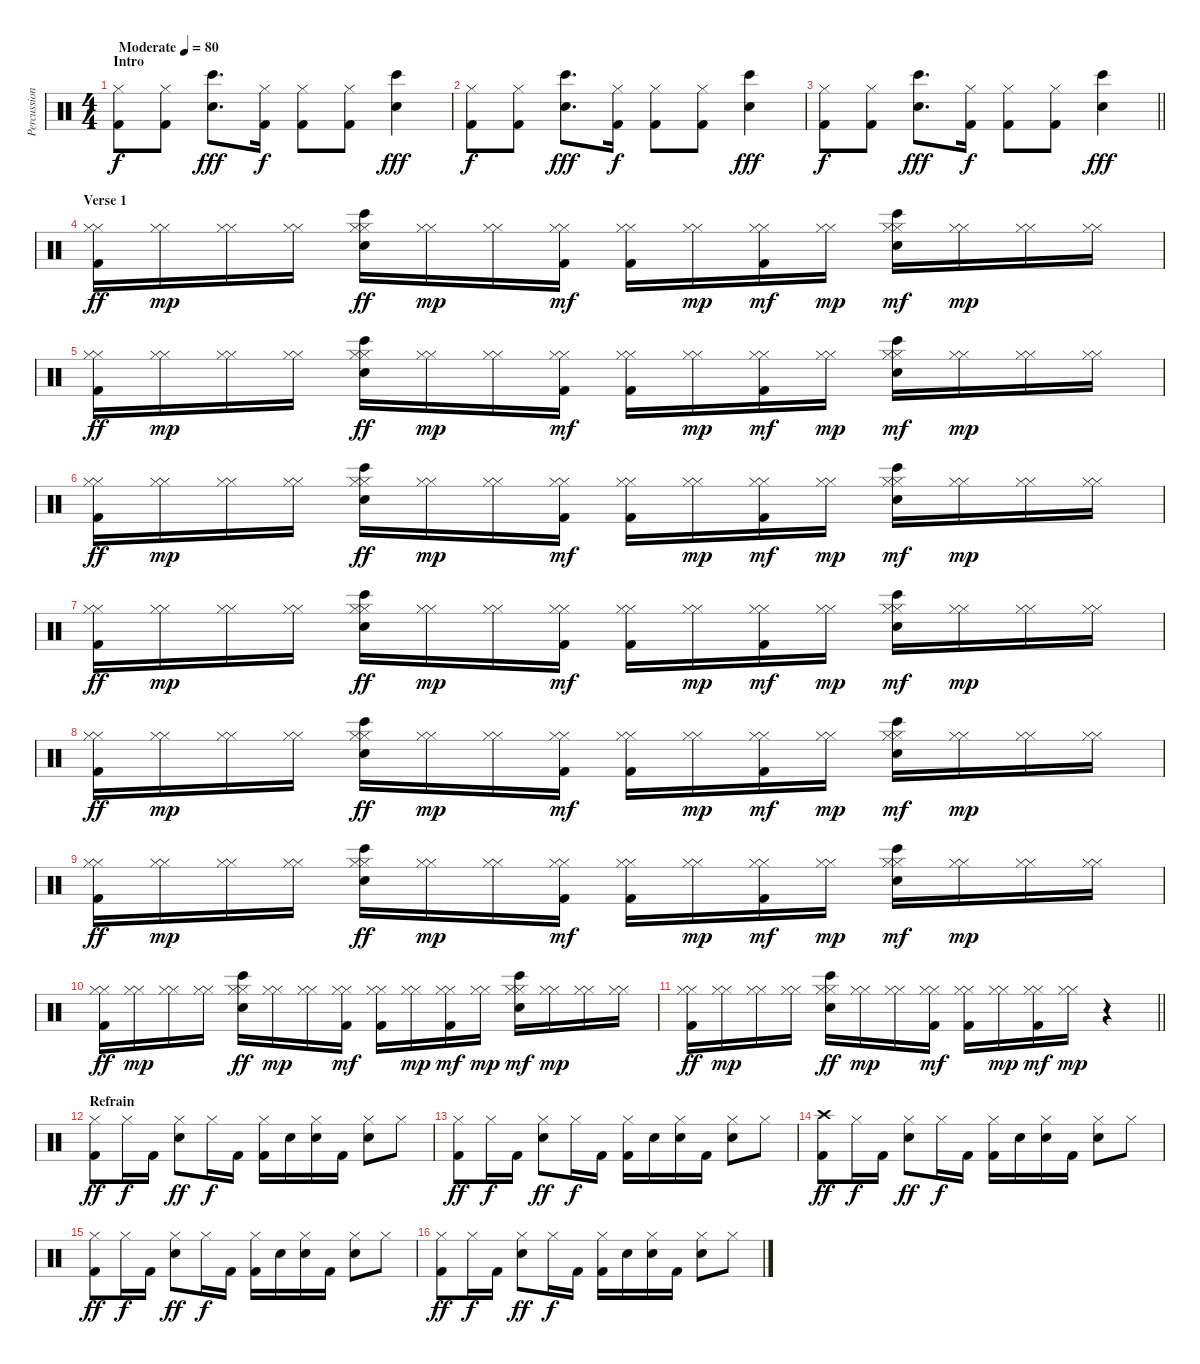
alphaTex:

\track ("Percussion (Stieven)" "Percussion") {instrument percussion}
\staff {score}
\articulation defaults
\ts (4 4)
\section ("" "Intro")
\tempo (80 "Moderate")
\clef neutral
\ks c
("Hi-Hat (closed)" "Kick (hit) 2").8{dy f} ("Hi-Hat (closed)" "Kick (hit) 2").8 ("Bongo High (hit)" "Snare (hit) 2").8{d dy fff} ("Hi-Hat (closed)" "Kick (hit) 2").16{dy f} ("Hi-Hat (closed)" "Kick (hit) 2").8 ("Hi-Hat (closed)" "Kick (hit) 2").8 ("Bongo High (hit)" "Snare (hit) 2").4{dy fff} |
("Hi-Hat (closed)" "Kick (hit) 2").8{dy f} ("Hi-Hat (closed)" "Kick (hit) 2").8 ("Bongo High (hit)" "Snare (hit) 2").8{d dy fff} ("Hi-Hat (closed)" "Kick (hit) 2").16{dy f} ("Hi-Hat (closed)" "Kick (hit) 2").8 ("Hi-Hat (closed)" "Kick (hit) 2").8 ("Bongo High (hit)" "Snare (hit) 2").4{dy fff} |
\barLineRight lightlight
("Hi-Hat (closed)" "Kick (hit) 2").8{dy f} ("Hi-Hat (closed)" "Kick (hit) 2").8 ("Bongo High (hit)" "Snare (hit) 2").8{d dy fff} ("Hi-Hat (closed)" "Kick (hit) 2").16{dy f} ("Hi-Hat (closed)" "Kick (hit) 2").8 ("Hi-Hat (closed)" "Kick (hit) 2").8 ("Bongo High (hit)" "Snare (hit) 2").4{dy fff} |
\section ("" "Verse 1")
("Hi-Hat (closed)" "Hi-Hat (closed)" "Kick (hit) 2").16{dy ff} ("Hi-Hat (closed)" "Hi-Hat (closed)").16{dy mp} ("Hi-Hat (closed)" "Hi-Hat (closed)").16 ("Hi-Hat (closed)" "Hi-Hat (closed)").16 ("Hi-Hat (closed)" "Hi-Hat (closed)" "Bongo High (hit)" "Snare (hit) 2").16{dy ff} ("Hi-Hat (closed)" "Hi-Hat (closed)").16{dy mp} ("Hi-Hat (closed)" "Hi-Hat (closed)").16 ("Hi-Hat (closed)" "Hi-Hat (closed)" "Kick (hit) 2").16{dy mf} ("Hi-Hat (closed)" "Hi-Hat (closed)" "Kick (hit) 2").16 ("Hi-Hat (closed)" "Hi-Hat (closed)").16{dy mp} ("Hi-Hat (closed)" "Hi-Hat (closed)" "Kick (hit) 2").16{dy mf} ("Hi-Hat (closed)" "Hi-Hat (closed)").16{dy mp} ("Hi-Hat (closed)" "Hi-Hat (closed)" "Bongo High (hit)" "Snare (hit) 2").16{dy mf} ("Hi-Hat (closed)" "Hi-Hat (closed)").16{dy mp} ("Hi-Hat (closed)" "Hi-Hat (closed)").16 ("Hi-Hat (closed)" "Hi-Hat (closed)").16 |
("Hi-Hat (closed)" "Hi-Hat (closed)" "Kick (hit) 2").16{dy ff} ("Hi-Hat (closed)" "Hi-Hat (closed)").16{dy mp} ("Hi-Hat (closed)" "Hi-Hat (closed)").16 ("Hi-Hat (closed)" "Hi-Hat (closed)").16 ("Hi-Hat (closed)" "Hi-Hat (closed)" "Bongo High (hit)" "Snare (hit) 2").16{dy ff} ("Hi-Hat (closed)" "Hi-Hat (closed)").16{dy mp} ("Hi-Hat (closed)" "Hi-Hat (closed)").16 ("Hi-Hat (closed)" "Hi-Hat (closed)" "Kick (hit) 2").16{dy mf} ("Hi-Hat (closed)" "Hi-Hat (closed)" "Kick (hit) 2").16 ("Hi-Hat (closed)" "Hi-Hat (closed)").16{dy mp} ("Hi-Hat (closed)" "Hi-Hat (closed)" "Kick (hit) 2").16{dy mf} ("Hi-Hat (closed)" "Hi-Hat (closed)").16{dy mp} ("Hi-Hat (closed)" "Hi-Hat (closed)" "Bongo High (hit)" "Snare (hit) 2").16{dy mf} ("Hi-Hat (closed)" "Hi-Hat (closed)").16{dy mp} ("Hi-Hat (closed)" "Hi-Hat (closed)").16 ("Hi-Hat (closed)" "Hi-Hat (closed)").16 |
("Hi-Hat (closed)" "Hi-Hat (closed)" "Kick (hit) 2").16{dy ff} ("Hi-Hat (closed)" "Hi-Hat (closed)").16{dy mp} ("Hi-Hat (closed)" "Hi-Hat (closed)").16 ("Hi-Hat (closed)" "Hi-Hat (closed)").16 ("Hi-Hat (closed)" "Hi-Hat (closed)" "Bongo High (hit)" "Snare (hit) 2").16{dy ff} ("Hi-Hat (closed)" "Hi-Hat (closed)").16{dy mp} ("Hi-Hat (closed)" "Hi-Hat (closed)").16 ("Hi-Hat (closed)" "Hi-Hat (closed)" "Kick (hit) 2").16{dy mf} ("Hi-Hat (closed)" "Hi-Hat (closed)" "Kick (hit) 2").16 ("Hi-Hat (closed)" "Hi-Hat (closed)").16{dy mp} ("Hi-Hat (closed)" "Hi-Hat (closed)" "Kick (hit) 2").16{dy mf} ("Hi-Hat (closed)" "Hi-Hat (closed)").16{dy mp} ("Hi-Hat (closed)" "Hi-Hat (closed)" "Bongo High (hit)" "Snare (hit) 2").16{dy mf} ("Hi-Hat (closed)" "Hi-Hat (closed)").16{dy mp} ("Hi-Hat (closed)" "Hi-Hat (closed)").16 ("Hi-Hat (closed)" "Hi-Hat (closed)").16 |
("Hi-Hat (closed)" "Hi-Hat (closed)" "Kick (hit) 2").16{dy ff} ("Hi-Hat (closed)" "Hi-Hat (closed)").16{dy mp} ("Hi-Hat (closed)" "Hi-Hat (closed)").16 ("Hi-Hat (closed)" "Hi-Hat (closed)").16 ("Hi-Hat (closed)" "Hi-Hat (closed)" "Bongo High (hit)" "Snare (hit) 2").16{dy ff} ("Hi-Hat (closed)" "Hi-Hat (closed)").16{dy mp} ("Hi-Hat (closed)" "Hi-Hat (closed)").16 ("Hi-Hat (closed)" "Hi-Hat (closed)" "Kick (hit) 2").16{dy mf} ("Hi-Hat (closed)" "Hi-Hat (closed)" "Kick (hit) 2").16 ("Hi-Hat (closed)" "Hi-Hat (closed)").16{dy mp} ("Hi-Hat (closed)" "Hi-Hat (closed)" "Kick (hit) 2").16{dy mf} ("Hi-Hat (closed)" "Hi-Hat (closed)").16{dy mp} ("Hi-Hat (closed)" "Hi-Hat (closed)" "Bongo High (hit)" "Snare (hit) 2").16{dy mf} ("Hi-Hat (closed)" "Hi-Hat (closed)").16{dy mp} ("Hi-Hat (closed)" "Hi-Hat (closed)").16 ("Hi-Hat (closed)" "Hi-Hat (closed)").16 |
("Hi-Hat (closed)" "Hi-Hat (closed)" "Kick (hit) 2").16{dy ff} ("Hi-Hat (closed)" "Hi-Hat (closed)").16{dy mp} ("Hi-Hat (closed)" "Hi-Hat (closed)").16 ("Hi-Hat (closed)" "Hi-Hat (closed)").16 ("Hi-Hat (closed)" "Hi-Hat (closed)" "Bongo High (hit)" "Snare (hit) 2").16{dy ff} ("Hi-Hat (closed)" "Hi-Hat (closed)").16{dy mp} ("Hi-Hat (closed)" "Hi-Hat (closed)").16 ("Hi-Hat (closed)" "Hi-Hat (closed)" "Kick (hit) 2").16{dy mf} ("Hi-Hat (closed)" "Hi-Hat (closed)" "Kick (hit) 2").16 ("Hi-Hat (closed)" "Hi-Hat (closed)").16{dy mp} ("Hi-Hat (closed)" "Hi-Hat (closed)" "Kick (hit) 2").16{dy mf} ("Hi-Hat (closed)" "Hi-Hat (closed)").16{dy mp} ("Hi-Hat (closed)" "Hi-Hat (closed)" "Bongo High (hit)" "Snare (hit) 2").16{dy mf} ("Hi-Hat (closed)" "Hi-Hat (closed)").16{dy mp} ("Hi-Hat (closed)" "Hi-Hat (closed)").16 ("Hi-Hat (closed)" "Hi-Hat (closed)").16 |
("Hi-Hat (closed)" "Hi-Hat (closed)" "Kick (hit) 2").16{dy ff} ("Hi-Hat (closed)" "Hi-Hat (closed)").16{dy mp} ("Hi-Hat (closed)" "Hi-Hat (closed)").16 ("Hi-Hat (closed)" "Hi-Hat (closed)").16 ("Hi-Hat (closed)" "Hi-Hat (closed)" "Bongo High (hit)" "Snare (hit) 2").16{dy ff} ("Hi-Hat (closed)" "Hi-Hat (closed)").16{dy mp} ("Hi-Hat (closed)" "Hi-Hat (closed)").16 ("Hi-Hat (closed)" "Hi-Hat (closed)" "Kick (hit) 2").16{dy mf} ("Hi-Hat (closed)" "Hi-Hat (closed)" "Kick (hit) 2").16 ("Hi-Hat (closed)" "Hi-Hat (closed)").16{dy mp} ("Hi-Hat (closed)" "Hi-Hat (closed)" "Kick (hit) 2").16{dy mf} ("Hi-Hat (closed)" "Hi-Hat (closed)").16{dy mp} ("Hi-Hat (closed)" "Hi-Hat (closed)" "Bongo High (hit)" "Snare (hit) 2").16{dy mf} ("Hi-Hat (closed)" "Hi-Hat (closed)").16{dy mp} ("Hi-Hat (closed)" "Hi-Hat (closed)").16 ("Hi-Hat (closed)" "Hi-Hat (closed)").16 |
("Hi-Hat (closed)" "Hi-Hat (closed)" "Kick (hit) 2").16{dy ff} ("Hi-Hat (closed)" "Hi-Hat (closed)").16{dy mp} ("Hi-Hat (closed)" "Hi-Hat (closed)").16 ("Hi-Hat (closed)" "Hi-Hat (closed)").16 ("Hi-Hat (closed)" "Hi-Hat (closed)" "Bongo High (hit)" "Snare (hit) 2").16{dy ff} ("Hi-Hat (closed)" "Hi-Hat (closed)").16{dy mp} ("Hi-Hat (closed)" "Hi-Hat (closed)").16 ("Hi-Hat (closed)" "Hi-Hat (closed)" "Kick (hit) 2").16{dy mf} ("Hi-Hat (closed)" "Hi-Hat (closed)" "Kick (hit) 2").16 ("Hi-Hat (closed)" "Hi-Hat (closed)").16{dy mp} ("Hi-Hat (closed)" "Hi-Hat (closed)" "Kick (hit) 2").16{dy mf} ("Hi-Hat (closed)" "Hi-Hat (closed)").16{dy mp} ("Hi-Hat (closed)" "Hi-Hat (closed)" "Bongo High (hit)" "Snare (hit) 2").16{dy mf} ("Hi-Hat (closed)" "Hi-Hat (closed)").16{dy mp} ("Hi-Hat (closed)" "Hi-Hat (closed)").16 ("Hi-Hat (closed)" "Hi-Hat (closed)").16 |
\barLineRight lightlight
("Hi-Hat (closed)" "Hi-Hat (closed)" "Kick (hit) 2").16{dy ff} ("Hi-Hat (closed)" "Hi-Hat (closed)").16{dy mp} ("Hi-Hat (closed)" "Hi-Hat (closed)").16 ("Hi-Hat (closed)" "Hi-Hat (closed)").16 ("Hi-Hat (closed)" "Hi-Hat (closed)" "Bongo High (hit)" "Snare (hit) 2").16{dy ff} ("Hi-Hat (closed)" "Hi-Hat (closed)").16{dy mp} ("Hi-Hat (closed)" "Hi-Hat (closed)").16 ("Hi-Hat (closed)" "Hi-Hat (closed)" "Kick (hit) 2").16{dy mf} ("Hi-Hat (closed)" "Hi-Hat (closed)" "Kick (hit) 2").16 ("Hi-Hat (closed)" "Hi-Hat (closed)").16{dy mp} ("Hi-Hat (closed)" "Hi-Hat (closed)" "Kick (hit) 2").16{dy mf} ("Hi-Hat (closed)" "Hi-Hat (closed)").16{dy mp} r.4 |
\section ("" "Refrain")
("Hi-Hat (closed)" "Kick (hit) 2").8{dy ff} "Hi-Hat (closed)".16{dy f} "Kick (hit) 2".16 ("Hi-Hat (closed)" "Snare (hit) 2").8{dy ff} "Hi-Hat (closed)".16{dy f} "Kick (hit) 2".16 ("Hi-Hat (closed)" "Kick (hit) 2").16 "Snare (hit) 2".16 ("Hi-Hat (closed)" "Snare (hit) 2").16 "Kick (hit) 2".16 ("Hi-Hat (closed)" "Snare (hit) 2").8 "Hi-Hat (closed)".8 |
("Hi-Hat (closed)" "Kick (hit) 2").8{dy ff} "Hi-Hat (closed)".16{dy f} "Kick (hit) 2".16 ("Hi-Hat (closed)" "Snare (hit) 2").8{dy ff} "Hi-Hat (closed)".16{dy f} "Kick (hit) 2".16 ("Hi-Hat (closed)" "Kick (hit) 2").16 "Snare (hit) 2".16 ("Hi-Hat (closed)" "Snare (hit) 2").16 "Kick (hit) 2".16 ("Hi-Hat (closed)" "Snare (hit) 2").8 "Hi-Hat (closed)".8 |
("Crash high (hit)" "Kick (hit) 2").8{dy ff} "Hi-Hat (closed)".16{dy f} "Kick (hit) 2".16 ("Hi-Hat (closed)" "Snare (hit) 2").8{dy ff} "Hi-Hat (closed)".16{dy f} "Kick (hit) 2".16 ("Hi-Hat (closed)" "Kick (hit) 2").16 "Snare (hit) 2".16 ("Hi-Hat (closed)" "Snare (hit) 2").16 "Kick (hit) 2".16 ("Hi-Hat (closed)" "Snare (hit) 2").8 "Hi-Hat (closed)".8 |
("Hi-Hat (closed)" "Kick (hit) 2").8{dy ff} "Hi-Hat (closed)".16{dy f} "Kick (hit) 2".16 ("Hi-Hat (closed)" "Snare (hit) 2").8{dy ff} "Hi-Hat (closed)".16{dy f} "Kick (hit) 2".16 ("Hi-Hat (closed)" "Kick (hit) 2").16 "Snare (hit) 2".16 ("Hi-Hat (closed)" "Snare (hit) 2").16 "Kick (hit) 2".16 ("Hi-Hat (closed)" "Snare (hit) 2").8 "Hi-Hat (closed)".8 |
("Hi-Hat (closed)" "Kick (hit) 2").8{dy ff} "Hi-Hat (closed)".16{dy f} "Kick (hit) 2".16 ("Hi-Hat (closed)" "Snare (hit) 2").8{dy ff} "Hi-Hat (closed)".16{dy f} "Kick (hit) 2".16 ("Hi-Hat (closed)" "Kick (hit) 2").16 "Snare (hit) 2".16 ("Hi-Hat (closed)" "Snare (hit) 2").16 "Kick (hit) 2".16 ("Hi-Hat (closed)" "Snare (hit) 2").8 "Hi-Hat (closed)".8
